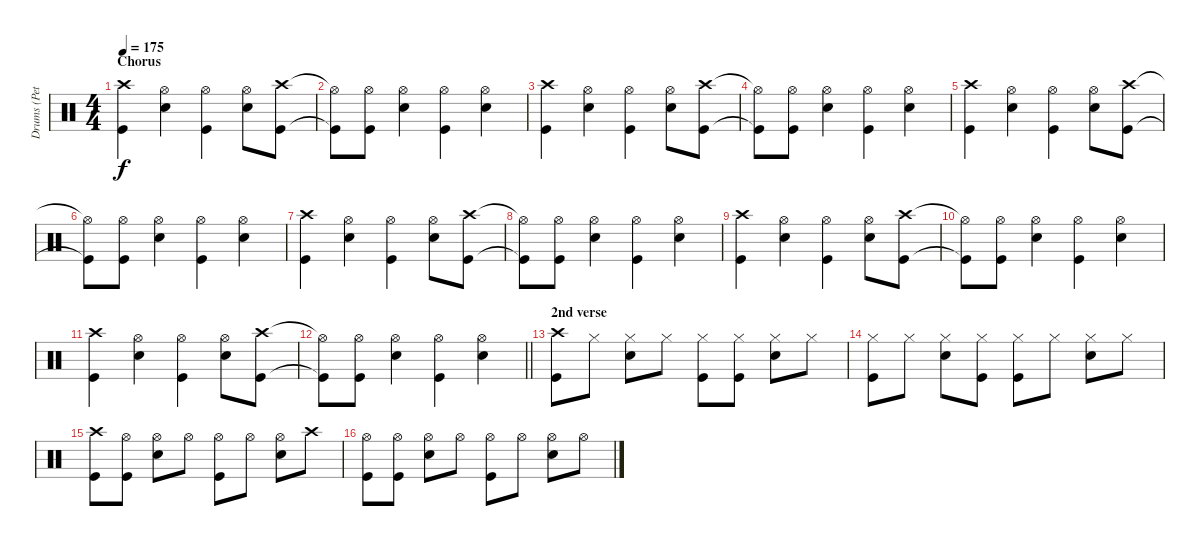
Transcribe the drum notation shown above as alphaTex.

\track ("Drums (Peter Jensen)" "Drums (Pet") {instrument percussion}
\staff {score}
\articulation defaults
\ts (4 4)
\section ("" "Chorus")
\tempo 175
\clef neutral
\ks c
("Crash high (hit)" "Kick (hit)").4{dy f} ("Hi-Hat (open)" "Snare (hit) 2").4 ("Hi-Hat (open)" "Kick (hit)").4 ("Hi-Hat (open)" "Snare (hit) 2").8 ("Crash high (hit)" "Kick (hit)").8 |
("Hi-Hat (open)"{t} "Kick (hit)"{t}).8 ("Hi-Hat (open)" "Kick (hit)").8 ("Hi-Hat (open)" "Snare (hit) 2").4 ("Hi-Hat (open)" "Kick (hit)").4 ("Hi-Hat (open)" "Snare (hit) 2").4 |
("Crash high (hit)" "Kick (hit)").4 ("Hi-Hat (open)" "Snare (hit) 2").4 ("Hi-Hat (open)" "Kick (hit)").4 ("Hi-Hat (open)" "Snare (hit) 2").8 ("Crash high (hit)" "Kick (hit)").8 |
("Hi-Hat (open)"{t} "Kick (hit)"{t}).8 ("Hi-Hat (open)" "Kick (hit)").8 ("Hi-Hat (open)" "Snare (hit) 2").4 ("Hi-Hat (open)" "Kick (hit)").4 ("Hi-Hat (open)" "Snare (hit) 2").4 |
("Crash high (hit)" "Kick (hit)").4 ("Hi-Hat (open)" "Snare (hit) 2").4 ("Hi-Hat (open)" "Kick (hit)").4 ("Hi-Hat (open)" "Snare (hit) 2").8 ("Crash high (hit)" "Kick (hit)").8 |
("Hi-Hat (open)"{t} "Kick (hit)"{t}).8 ("Hi-Hat (open)" "Kick (hit)").8 ("Hi-Hat (open)" "Snare (hit) 2").4 ("Hi-Hat (open)" "Kick (hit)").4 ("Hi-Hat (open)" "Snare (hit) 2").4 |
("Crash high (hit)" "Kick (hit)").4 ("Hi-Hat (open)" "Snare (hit) 2").4 ("Hi-Hat (open)" "Kick (hit)").4 ("Hi-Hat (open)" "Snare (hit) 2").8 ("Crash high (hit)" "Kick (hit)").8 |
("Hi-Hat (open)"{t} "Kick (hit)"{t}).8 ("Hi-Hat (open)" "Kick (hit)").8 ("Hi-Hat (open)" "Snare (hit) 2").4 ("Hi-Hat (open)" "Kick (hit)").4 ("Hi-Hat (open)" "Snare (hit) 2").4 |
("Crash high (hit)" "Kick (hit)").4 ("Hi-Hat (open)" "Snare (hit) 2").4 ("Hi-Hat (open)" "Kick (hit)").4 ("Hi-Hat (open)" "Snare (hit) 2").8 ("Crash high (hit)" "Kick (hit)").8 |
("Hi-Hat (open)"{t} "Kick (hit)"{t}).8 ("Hi-Hat (open)" "Kick (hit)").8 ("Hi-Hat (open)" "Snare (hit) 2").4 ("Hi-Hat (open)" "Kick (hit)").4 ("Hi-Hat (open)" "Snare (hit) 2").4 |
("Crash high (hit)" "Kick (hit)").4 ("Hi-Hat (open)" "Snare (hit) 2").4 ("Hi-Hat (open)" "Kick (hit)").4 ("Hi-Hat (open)" "Snare (hit) 2").8 ("Crash high (hit)" "Kick (hit)").8 |
\barLineRight lightlight
("Hi-Hat (open)"{t} "Kick (hit)"{t}).8 ("Hi-Hat (open)" "Kick (hit)").8 ("Hi-Hat (open)" "Snare (hit) 2").4 ("Hi-Hat (open)" "Kick (hit)").4 ("Hi-Hat (open)" "Snare (hit) 2").4 |
\section ("" "2nd verse")
("Crash high (hit)" "Kick (hit)").8 "Hi-Hat (closed)".8 ("Hi-Hat (closed)" "Snare (hit) 2").8 "Hi-Hat (closed)".8 ("Hi-Hat (closed)" "Kick (hit)").8 ("Hi-Hat (closed)" "Kick (hit)").8 ("Hi-Hat (closed)" "Snare (hit) 2").8 "Hi-Hat (closed)".8 |
("Hi-Hat (closed)" "Kick (hit)").8 "Hi-Hat (closed)".8 ("Hi-Hat (closed)" "Snare (hit) 2").8 ("Hi-Hat (closed)" "Kick (hit)").8 ("Hi-Hat (closed)" "Kick (hit)").8 "Hi-Hat (closed)".8 ("Hi-Hat (closed)" "Snare (hit) 2").8 "Hi-Hat (closed)".8 |
("Crash high (hit)" "Kick (hit)").8 ("Hi-Hat (open)" "Kick (hit)").8 ("Hi-Hat (open)" "Snare (hit) 2").8 "Hi-Hat (open)".8 ("Hi-Hat (open)" "Kick (hit)").8 "Hi-Hat (open)".8 ("Hi-Hat (open)" "Snare (hit) 2").8 "Crash high (hit)".8 |
("Hi-Hat (open)" "Kick (hit)").8 ("Hi-Hat (open)" "Kick (hit)").8 ("Hi-Hat (open)" "Snare (hit) 2").8 "Hi-Hat (open)".8 ("Hi-Hat (open)" "Kick (hit)").8 "Hi-Hat (open)".8 ("Hi-Hat (open)" "Snare (hit) 2").8 "Hi-Hat (open)".8
